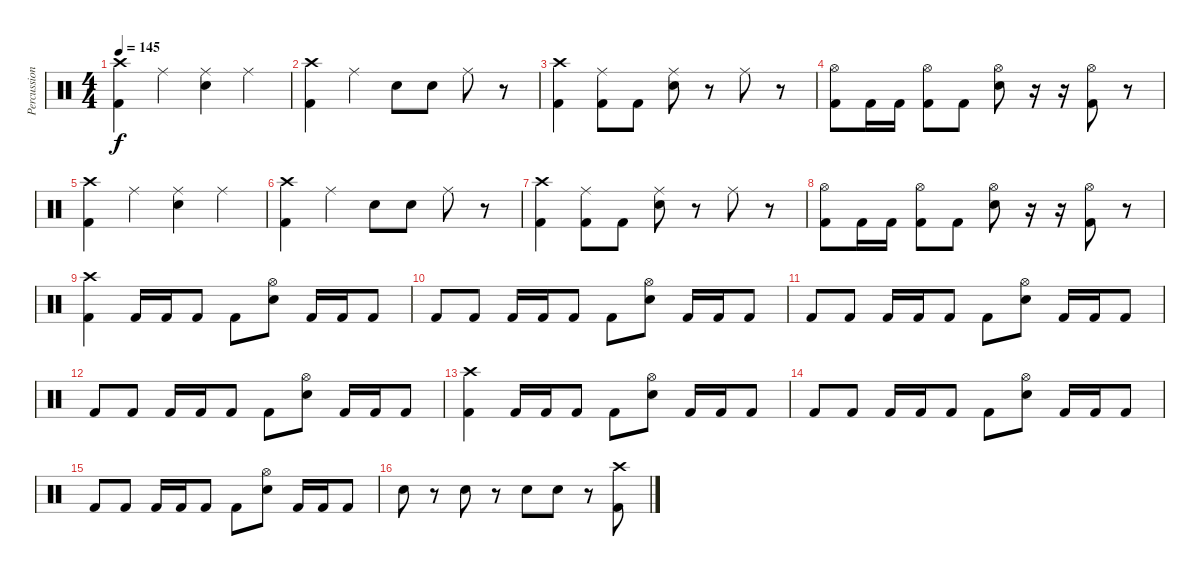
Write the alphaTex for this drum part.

\track ("Percussion" "Percussion") {instrument percussion}
\staff {score}
\articulation defaults
\ts (4 4)
\tempo 145
\clef neutral
\ks c
("Crash high (hit)" "Kick (hit) 2").4{dy f} "Ride (middle)".4 ("Ride (middle)" "Snare (hit) 2").4 "Ride (middle)".4 |
("Crash high (hit)" "Kick (hit) 2").4 "Ride (middle)".4 "Snare (hit) 2".8 "Snare (hit) 2".8 "Ride (middle)".8 r.8 |
("Crash high (hit)" "Kick (hit) 2").4 ("Ride (middle)" "Kick (hit) 2").8 "Kick (hit) 2".8 ("Ride (middle)" "Snare (hit) 2").8 r.8 "Ride (middle)".8 r.8 |
("Hi-Hat (open)" "Kick (hit) 2").8 "Kick (hit) 2".16 "Kick (hit) 2".16 ("Hi-Hat (open)" "Kick (hit) 2").8 "Kick (hit) 2".8 ("Hi-Hat (open)" "Snare (hit) 2").8 r.16 r.16 ("Hi-Hat (open)" "Kick (hit) 2").8 r.8 |
("Crash high (hit)" "Kick (hit) 2").4 "Ride (middle)".4 ("Ride (middle)" "Snare (hit) 2").4 "Ride (middle)".4 |
("Crash high (hit)" "Kick (hit) 2").4 "Ride (middle)".4 "Snare (hit) 2".8 "Snare (hit) 2".8 "Ride (middle)".8 r.8 |
("Crash high (hit)" "Kick (hit) 2").4 ("Ride (middle)" "Kick (hit) 2").8 "Kick (hit) 2".8 ("Ride (middle)" "Snare (hit) 2").8 r.8 "Ride (middle)".8 r.8 |
("Hi-Hat (open)" "Kick (hit) 2").8 "Kick (hit) 2".16 "Kick (hit) 2".16 ("Hi-Hat (open)" "Kick (hit) 2").8 "Kick (hit) 2".8 ("Hi-Hat (open)" "Snare (hit) 2").8 r.16 r.16 ("Hi-Hat (open)" "Kick (hit) 2").8 r.8 |
("Crash high (hit)" "Kick (hit) 2").4 "Kick (hit) 2".16 "Kick (hit) 2".16 "Kick (hit) 2".8 "Kick (hit) 2".8 ("Hi-Hat (open)" "Snare (hit) 2").8 "Kick (hit) 2".16 "Kick (hit) 2".16 "Kick (hit) 2".8 |
"Kick (hit) 2".8 "Kick (hit) 2".8 "Kick (hit) 2".16 "Kick (hit) 2".16 "Kick (hit) 2".8 "Kick (hit) 2".8 ("Hi-Hat (open)" "Snare (hit) 2").8 "Kick (hit) 2".16 "Kick (hit) 2".16 "Kick (hit) 2".8 |
"Kick (hit) 2".8 "Kick (hit) 2".8 "Kick (hit) 2".16 "Kick (hit) 2".16 "Kick (hit) 2".8 "Kick (hit) 2".8 ("Hi-Hat (open)" "Snare (hit) 2").8 "Kick (hit) 2".16 "Kick (hit) 2".16 "Kick (hit) 2".8 |
"Kick (hit) 2".8 "Kick (hit) 2".8 "Kick (hit) 2".16 "Kick (hit) 2".16 "Kick (hit) 2".8 "Kick (hit) 2".8 ("Hi-Hat (open)" "Snare (hit) 2").8 "Kick (hit) 2".16 "Kick (hit) 2".16 "Kick (hit) 2".8 |
("Crash high (hit)" "Kick (hit) 2").4 "Kick (hit) 2".16 "Kick (hit) 2".16 "Kick (hit) 2".8 "Kick (hit) 2".8 ("Hi-Hat (open)" "Snare (hit) 2").8 "Kick (hit) 2".16 "Kick (hit) 2".16 "Kick (hit) 2".8 |
"Kick (hit) 2".8 "Kick (hit) 2".8 "Kick (hit) 2".16 "Kick (hit) 2".16 "Kick (hit) 2".8 "Kick (hit) 2".8 ("Hi-Hat (open)" "Snare (hit) 2").8 "Kick (hit) 2".16 "Kick (hit) 2".16 "Kick (hit) 2".8 |
"Kick (hit) 2".8 "Kick (hit) 2".8 "Kick (hit) 2".16 "Kick (hit) 2".16 "Kick (hit) 2".8 "Kick (hit) 2".8 ("Hi-Hat (open)" "Snare (hit) 2").8 "Kick (hit) 2".16 "Kick (hit) 2".16 "Kick (hit) 2".8 |
"Snare (hit) 2".8 r.8 "Snare (hit) 2".8 r.8 "Snare (hit) 2".8 "Snare (hit) 2".8 r.8 ("Crash high (hit)" "Kick (hit) 2").8
